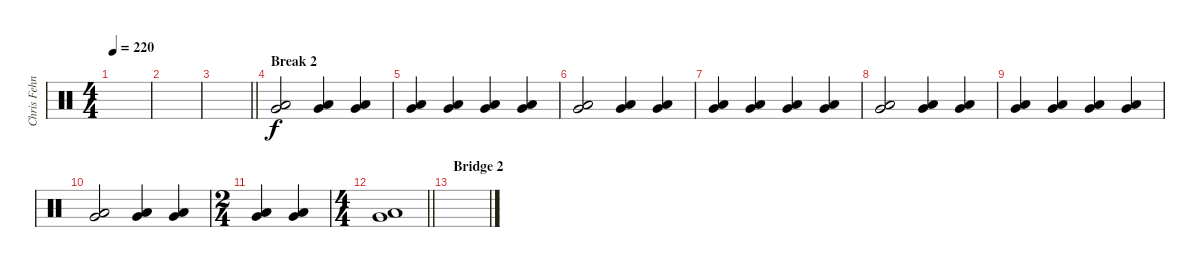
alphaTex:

\track ("Chris Fehn" "Chris Fehn") {instrument percussion}
\staff {score}
\articulation defaults
\ts (4 4)
\tempo 220
\clef neutral
\ks c
|
|
\barLineRight lightlight
|
\section ("" "Break 2")
("Very Low Tom (hit)" "Low Floor Tom (hit)").2 ("Very Low Tom (hit)" "Low Floor Tom (hit)").4 ("Very Low Tom (hit)" "Low Floor Tom (hit)").4 |
("Very Low Tom (hit)" "Low Floor Tom (hit)").4 ("Very Low Tom (hit)" "Low Floor Tom (hit)").4 ("Very Low Tom (hit)" "Low Floor Tom (hit)").4 ("Very Low Tom (hit)" "Low Floor Tom (hit)").4 |
("Very Low Tom (hit)" "Low Floor Tom (hit)").2 ("Very Low Tom (hit)" "Low Floor Tom (hit)").4 ("Very Low Tom (hit)" "Low Floor Tom (hit)").4 |
("Very Low Tom (hit)" "Low Floor Tom (hit)").4 ("Very Low Tom (hit)" "Low Floor Tom (hit)").4 ("Very Low Tom (hit)" "Low Floor Tom (hit)").4 ("Very Low Tom (hit)" "Low Floor Tom (hit)").4 |
("Very Low Tom (hit)" "Low Floor Tom (hit)").2 ("Very Low Tom (hit)" "Low Floor Tom (hit)").4 ("Very Low Tom (hit)" "Low Floor Tom (hit)").4 |
("Very Low Tom (hit)" "Low Floor Tom (hit)").4 ("Very Low Tom (hit)" "Low Floor Tom (hit)").4 ("Very Low Tom (hit)" "Low Floor Tom (hit)").4 ("Very Low Tom (hit)" "Low Floor Tom (hit)").4 |
("Very Low Tom (hit)" "Low Floor Tom (hit)").2 ("Very Low Tom (hit)" "Low Floor Tom (hit)").4 ("Very Low Tom (hit)" "Low Floor Tom (hit)").4 |
\ts (2 4)
("Very Low Tom (hit)" "Low Floor Tom (hit)").4 ("Very Low Tom (hit)" "Low Floor Tom (hit)").4 |
\ts (4 4)
\barLineRight lightlight
("Very Low Tom (hit)" "Low Floor Tom (hit)").1 |
\section ("" "Bridge 2")
